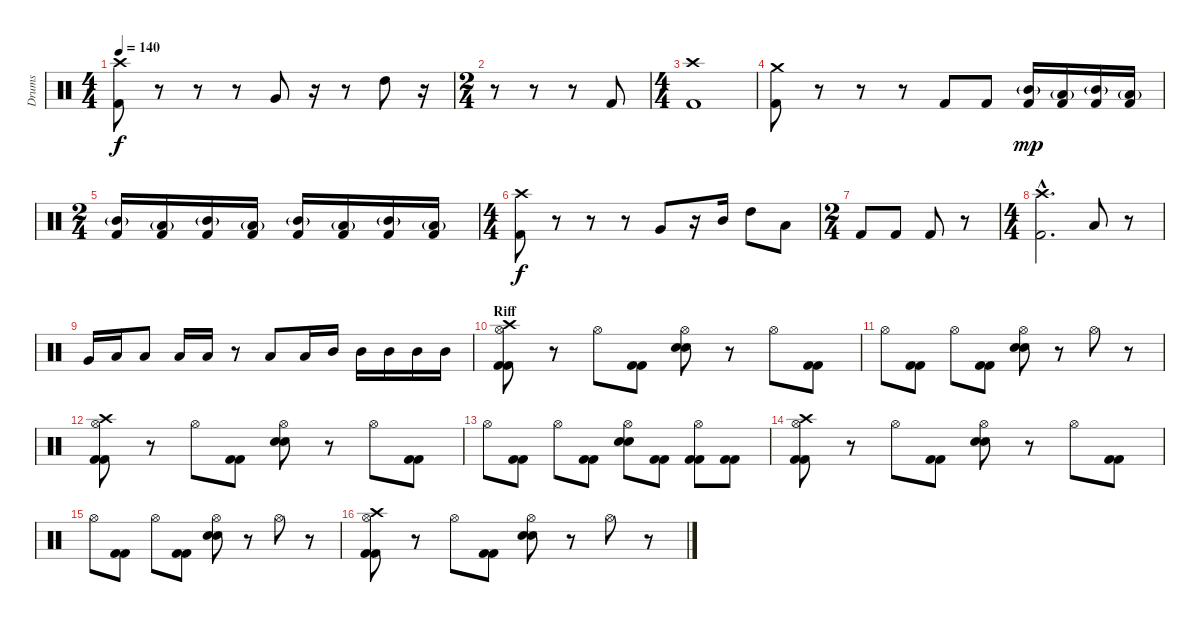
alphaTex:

\track ("Drums" "Drums") {instrument percussion}
\staff {score}
\articulation defaults
\ts (4 4)
\tempo 140
\clef neutral
\ks c
("Crash high (hit)" "Kick (hit) 2").8{dy f} r.8 r.8 r.8 "Very Low Tom (hit)".8 r.16 r.8 "High Tom (hit)".8 r.16 |
\ts (2 4)
r.8 r.8 r.8 "Kick (hit) 2".8 |
\ts (4 4)
("Crash high (hit)" "Kick (hit) 2").1 |
("Crash medium (hit)" "Kick (hit) 2").8 r.8 r.8 r.8 "Kick (hit) 2".8 "Kick (hit) 2".8 ("Mid Tom (hit)"{g} "Kick (hit) 2").16{dy mp} ("Low Tom (hit)"{g} "Kick (hit) 2").16 ("Mid Tom (hit)"{g} "Kick (hit) 2").16 ("Low Tom (hit)"{g} "Kick (hit) 2").16 |
\ts (2 4)
("Mid Tom (hit)"{g} "Kick (hit) 2").16 ("Low Tom (hit)"{g} "Kick (hit) 2").16 ("Mid Tom (hit)"{g} "Kick (hit) 2").16 ("Low Tom (hit)"{g} "Kick (hit) 2").16 ("Mid Tom (hit)"{g} "Kick (hit) 2").16 ("Low Tom (hit)"{g} "Kick (hit) 2").16 ("Mid Tom (hit)"{g} "Kick (hit) 2").16 ("Low Tom (hit)"{g} "Kick (hit) 2").16 |
\ts (4 4)
("Crash high (hit)" "Kick (hit) 2").8{dy f} r.8 r.8 r.8 "Very Low Tom (hit)".8 r.16 "Mid Tom (hit)".16 "High Tom (hit)".8 "Low Tom (hit)".8 |
\ts (2 4)
"Kick (hit) 2".8 "Kick (hit) 2".8 "Kick (hit) 2".8 r.8 |
\ts (4 4)
("Crash high (hit)"{hac} "Kick (hit) 2"{hac}).2{d} "Low Tom (hit)".8 r.8 |
"Very Low Tom (hit)".16 "Low Tom (hit)".16 "Low Tom (hit)".8 "Low Tom (hit)".16 "Low Tom (hit)".16 r.8 "Low Tom (hit)".8 "Low Tom (hit)".16 "Mid Tom (hit)".16 "Mid Tom (hit)".16 "Mid Tom (hit)".16 "Mid Tom (hit)".16 "Mid Tom (hit)".16 |
\section ("" "Riff")
("Crash high (hit)" "Hi-Hat (open)" "Kick (hit) 2" "Kick (hit) 2").8 r.8 "Hi-Hat (open)".8 ("Kick (hit) 2" "Kick (hit) 2").8 ("Hi-Hat (open)" "Electric Snare (hit)" "Electric Snare (hit)").8 r.8 "Hi-Hat (open)".8 ("Kick (hit) 2" "Kick (hit) 2").8 |
"Hi-Hat (open)".8 ("Kick (hit) 2" "Kick (hit) 2").8 "Hi-Hat (open)".8 ("Kick (hit) 2" "Kick (hit) 2").8 ("Hi-Hat (open)" "Electric Snare (hit)" "Electric Snare (hit)").8 r.8 "Hi-Hat (open)".8 r.8 |
("Crash high (hit)" "Hi-Hat (open)" "Kick (hit) 2" "Kick (hit) 2").8 r.8 "Hi-Hat (open)".8 ("Kick (hit) 2" "Kick (hit) 2").8 ("Hi-Hat (open)" "Electric Snare (hit)" "Electric Snare (hit)").8 r.8 "Hi-Hat (open)".8 ("Kick (hit) 2" "Kick (hit) 2").8 |
"Hi-Hat (open)".8 ("Kick (hit) 2" "Kick (hit) 2").8 "Hi-Hat (open)".8 ("Kick (hit) 2" "Kick (hit) 2").8 ("Hi-Hat (open)" "Electric Snare (hit)" "Electric Snare (hit)").8 ("Kick (hit) 2" "Kick (hit) 2").8 ("Hi-Hat (open)" "Kick (hit) 2" "Kick (hit) 2").8 ("Kick (hit) 2" "Kick (hit) 2").8 |
("Crash high (hit)" "Hi-Hat (open)" "Kick (hit) 2" "Kick (hit) 2").8 r.8 "Hi-Hat (open)".8 ("Kick (hit) 2" "Kick (hit) 2").8 ("Hi-Hat (open)" "Electric Snare (hit)" "Electric Snare (hit)").8 r.8 "Hi-Hat (open)".8 ("Kick (hit) 2" "Kick (hit) 2").8 |
"Hi-Hat (open)".8 ("Kick (hit) 2" "Kick (hit) 2").8 "Hi-Hat (open)".8 ("Kick (hit) 2" "Kick (hit) 2").8 ("Hi-Hat (open)" "Electric Snare (hit)" "Electric Snare (hit)").8 r.8 "Hi-Hat (open)".8 r.8 |
("Crash high (hit)" "Hi-Hat (open)" "Kick (hit) 2" "Kick (hit) 2").8 r.8 "Hi-Hat (open)".8 ("Kick (hit) 2" "Kick (hit) 2").8 ("Hi-Hat (open)" "Electric Snare (hit)" "Electric Snare (hit)").8 r.8 "Hi-Hat (open)".8 r.8
